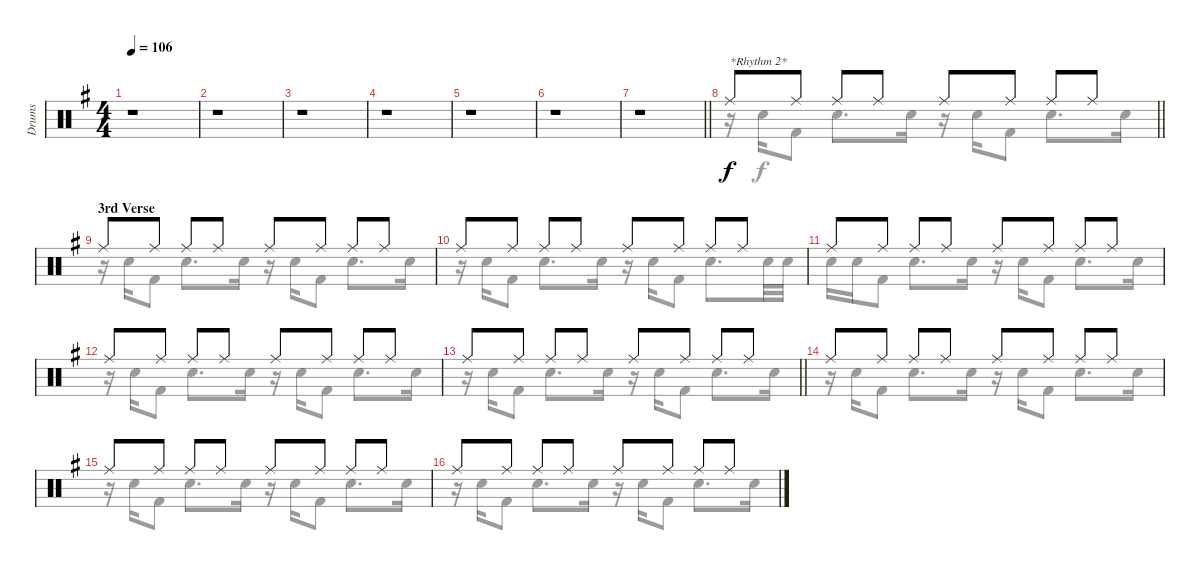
\track ("Drums" "Drums") {instrument percussion}
\staff {score}
\articulation defaults
\voice
\ts (4 4)
\tempo 106
\clef neutral
\ks eminor
r.1{dy f} |
r.1 |
r.1 |
r.1 |
r.1 |
r.1 |
\barLineRight lightlight
r.1 |
\barLineRight lightlight "Ride (middle)".8{txt "*Rhythm 2*"} "Ride (middle)".8 "Ride (middle)".8 "Ride (middle)".8 "Ride (middle)".8 "Ride (middle)".8 "Ride (middle)".8 "Ride (middle)".8
|
\section ("" "3rd Verse")
"Ride (middle)".8 "Ride (middle)".8 "Ride (middle)".8 "Ride (middle)".8 "Ride (middle)".8 "Ride (middle)".8 "Ride (middle)".8 "Ride (middle)".8 |
"Ride (middle)".8 "Ride (middle)".8 "Ride (middle)".8 "Ride (middle)".8 "Ride (middle)".8 "Ride (middle)".8 "Ride (middle)".8 "Ride (middle)".8 |
"Ride (middle)".8 "Ride (middle)".8 "Ride (middle)".8 "Ride (middle)".8 "Ride (middle)".8 "Ride (middle)".8 "Ride (middle)".8 "Ride (middle)".8 |
"Ride (middle)".8 "Ride (middle)".8 "Ride (middle)".8 "Ride (middle)".8 "Ride (middle)".8 "Ride (middle)".8 "Ride (middle)".8 "Ride (middle)".8 |
\barLineRight lightlight "Ride (middle)".8 "Ride (middle)".8 "Ride (middle)".8 "Ride (middle)".8 "Ride (middle)".8 "Ride (middle)".8 "Ride (middle)".8 "Ride (middle)".8
|
"Ride (middle)".8 "Ride (middle)".8 "Ride (middle)".8 "Ride (middle)".8 "Ride (middle)".8 "Ride (middle)".8 "Ride (middle)".8 "Ride (middle)".8 |
"Ride (middle)".8 "Ride (middle)".8 "Ride (middle)".8 "Ride (middle)".8 "Ride (middle)".8 "Ride (middle)".8 "Ride (middle)".8 "Ride (middle)".8 |
"Ride (middle)".8 "Ride (middle)".8 "Ride (middle)".8 "Ride (middle)".8 "Ride (middle)".8 "Ride (middle)".8 "Ride (middle)".8 "Ride (middle)".8
\voice
\clef neutral
\ottava regular
\simile none
\ks eminor
|
|
|
|
|
|
\barLineRight lightlight
|
\barLineRight lightlight
r.16 "Electric Snare (hit)".16 "Kick (hit) 2".8 "Electric Snare (hit)".8{d} "Electric Snare (hit)".16 r.16 "Electric Snare (hit)".16 "Kick (hit) 2".8 "Electric Snare (hit)".8{d} "Electric Snare (hit)".16 |
r.16 "Electric Snare (hit)".16 "Kick (hit) 2".8 "Electric Snare (hit)".8{d} "Electric Snare (hit)".16 r.16 "Electric Snare (hit)".16 "Kick (hit) 2".8 "Electric Snare (hit)".8{d} "Electric Snare (hit)".16 |
r.16 "Electric Snare (hit)".16 "Kick (hit) 2".8 "Electric Snare (hit)".8{d} "Electric Snare (hit)".16 r.16 "Electric Snare (hit)".16 "Kick (hit) 2".8 "Electric Snare (hit)".8{d} "Electric Snare (hit)".32 "Electric Snare (hit)".32 |
"Electric Snare (hit)".16 "Electric Snare (hit)".16 "Kick (hit) 2".8 "Electric Snare (hit)".8{d} "Electric Snare (hit)".16 r.16 "Electric Snare (hit)".16 "Kick (hit) 2".8 "Electric Snare (hit)".8{d} "Electric Snare (hit)".16 |
r.16 "Electric Snare (hit)".16 "Kick (hit) 2".8 "Electric Snare (hit)".8{d} "Electric Snare (hit)".16 r.16 "Electric Snare (hit)".16 "Kick (hit) 2".8 "Electric Snare (hit)".8{d} "Electric Snare (hit)".16 |
\barLineRight lightlight
r.16 "Electric Snare (hit)".16 "Kick (hit) 2".8 "Electric Snare (hit)".8{d} "Electric Snare (hit)".16 r.16 "Electric Snare (hit)".16 "Kick (hit) 2".8 "Electric Snare (hit)".8{d} "Electric Snare (hit)".16 |
r.16 "Electric Snare (hit)".16 "Kick (hit) 2".8 "Electric Snare (hit)".8{d} "Electric Snare (hit)".16 r.16 "Electric Snare (hit)".16 "Kick (hit) 2".8 "Electric Snare (hit)".8{d} "Electric Snare (hit)".16 |
r.16 "Electric Snare (hit)".16 "Kick (hit) 2".8 "Electric Snare (hit)".8{d} "Electric Snare (hit)".16 r.16 "Electric Snare (hit)".16 "Kick (hit) 2".8 "Electric Snare (hit)".8{d} "Electric Snare (hit)".16 |
r.16 "Electric Snare (hit)".16 "Kick (hit) 2".8 "Electric Snare (hit)".8{d} "Electric Snare (hit)".16 r.16 "Electric Snare (hit)".16 "Kick (hit) 2".8 "Electric Snare (hit)".8{d} "Electric Snare (hit)".16
